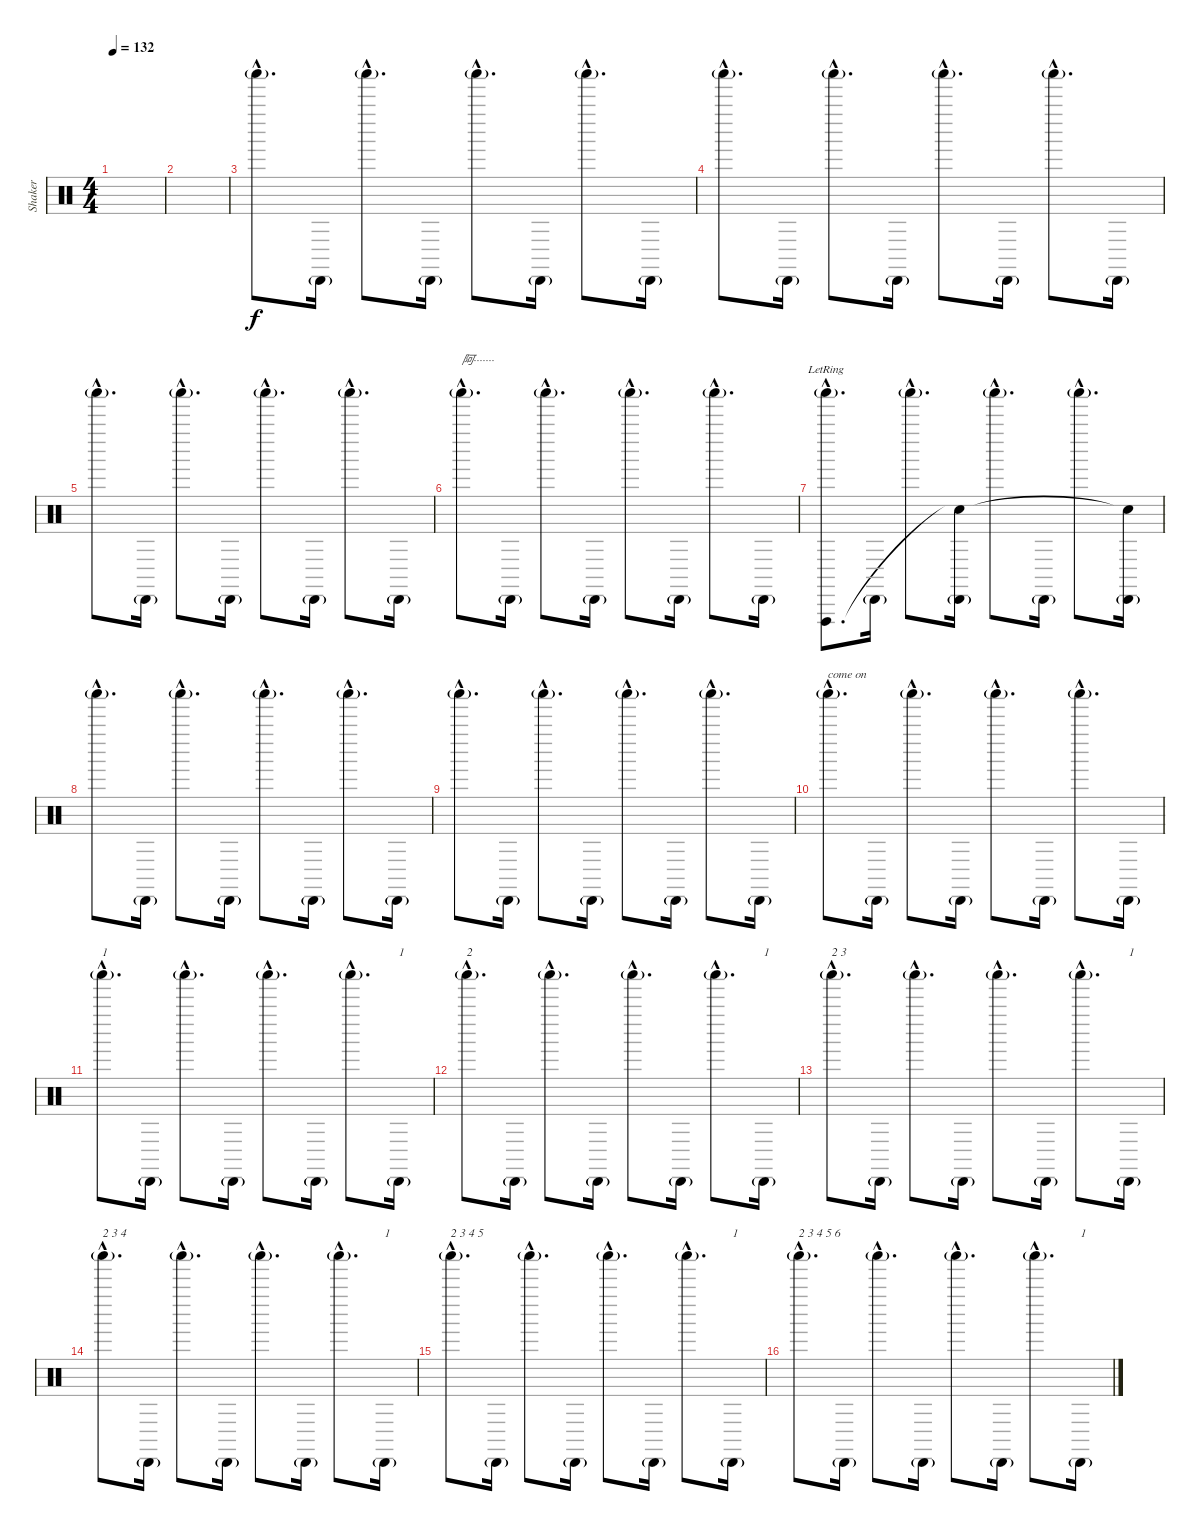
\track ("Shaker" "Shaker") {instrument percussion}
\staff {score}
\articulation defaults
\ts (4 4)
\tempo 132
\clef neutral
\ks c
|
|
"Shaker (hit)"{g hac}.8{d} "Cabasa (hit)"{g}.16 "Shaker (hit)"{g hac}.8{d} "Cabasa (hit)"{g}.16 "Shaker (hit)"{g hac}.8{d} "Cabasa (hit)"{g}.16 "Shaker (hit)"{g hac}.8{d} "Cabasa (hit)"{g}.16 |
"Shaker (hit)"{g hac}.8{d} "Cabasa (hit)"{g}.16 "Shaker (hit)"{g hac}.8{d} "Cabasa (hit)"{g}.16 "Shaker (hit)"{g hac}.8{d} "Cabasa (hit)"{g}.16 "Shaker (hit)"{g hac}.8{d} "Cabasa (hit)"{g}.16 |
"Shaker (hit)"{g hac}.8{d} "Cabasa (hit)"{g}.16 "Shaker (hit)"{g hac}.8{d} "Cabasa (hit)"{g}.16 "Shaker (hit)"{g hac}.8{d} "Cabasa (hit)"{g}.16 "Shaker (hit)"{g hac}.8{d} "Cabasa (hit)"{g}.16 |
"Shaker (hit)"{g hac}.8{d txt "阿·······"} "Cabasa (hit)"{g}.16 "Shaker (hit)"{g hac}.8{d} "Cabasa (hit)"{g}.16 "Shaker (hit)"{g hac}.8{d} "Cabasa (hit)"{g}.16 "Shaker (hit)"{g hac}.8{d} "Cabasa (hit)"{g}.16 |
("Shaker (hit)"{g hac} "Vibraslap (hit)"{hac lr}).8{d} "Cabasa (hit)"{g}.16 "Shaker (hit)"{g hac}.8{d} ("Cabasa (hit)"{g} "Snare (hit)"{t}).16 "Shaker (hit)"{g hac}.8{d} "Cabasa (hit)"{g}.16 "Shaker (hit)"{g hac}.8{d} ("Cabasa (hit)"{g} "Snare (hit)"{t}).16 |
"Shaker (hit)"{g hac}.8{d} "Cabasa (hit)"{g}.16 "Shaker (hit)"{g hac}.8{d} "Cabasa (hit)"{g}.16 "Shaker (hit)"{g hac}.8{d} "Cabasa (hit)"{g}.16 "Shaker (hit)"{g hac}.8{d} "Cabasa (hit)"{g}.16 |
"Shaker (hit)"{g hac}.8{d} "Cabasa (hit)"{g}.16 "Shaker (hit)"{g hac}.8{d} "Cabasa (hit)"{g}.16 "Shaker (hit)"{g hac}.8{d} "Cabasa (hit)"{g}.16 "Shaker (hit)"{g hac}.8{d} "Cabasa (hit)"{g}.16 |
"Shaker (hit)"{g hac}.8{d txt "come on"} "Cabasa (hit)"{g}.16 "Shaker (hit)"{g hac}.8{d} "Cabasa (hit)"{g}.16 "Shaker (hit)"{g hac}.8{d} "Cabasa (hit)"{g}.16 "Shaker (hit)"{g hac}.8{d} "Cabasa (hit)"{g}.16 |
"Shaker (hit)"{g hac}.8{d txt "1"} "Cabasa (hit)"{g}.16 "Shaker (hit)"{g hac}.8{d} "Cabasa (hit)"{g}.16 "Shaker (hit)"{g hac}.8{d} "Cabasa (hit)"{g}.16 "Shaker (hit)"{g hac}.8{d} "Cabasa (hit)"{g}.16{txt "1"} |
"Shaker (hit)"{g hac}.8{d txt "2"} "Cabasa (hit)"{g}.16 "Shaker (hit)"{g hac}.8{d} "Cabasa (hit)"{g}.16 "Shaker (hit)"{g hac}.8{d} "Cabasa (hit)"{g}.16 "Shaker (hit)"{g hac}.8{d} "Cabasa (hit)"{g}.16{txt "1"} |
"Shaker (hit)"{g hac}.8{d txt "2 3"} "Cabasa (hit)"{g}.16 "Shaker (hit)"{g hac}.8{d} "Cabasa (hit)"{g}.16 "Shaker (hit)"{g hac}.8{d} "Cabasa (hit)"{g}.16 "Shaker (hit)"{g hac}.8{d} "Cabasa (hit)"{g}.16{txt "1"} |
"Shaker (hit)"{g hac}.8{d txt "2 3 4"} "Cabasa (hit)"{g}.16 "Shaker (hit)"{g hac}.8{d} "Cabasa (hit)"{g}.16 "Shaker (hit)"{g hac}.8{d} "Cabasa (hit)"{g}.16 "Shaker (hit)"{g hac}.8{d} "Cabasa (hit)"{g}.16{txt "1"} |
"Shaker (hit)"{g hac}.8{d txt "2 3 4 5 "} "Cabasa (hit)"{g}.16 "Shaker (hit)"{g hac}.8{d} "Cabasa (hit)"{g}.16 "Shaker (hit)"{g hac}.8{d} "Cabasa (hit)"{g}.16 "Shaker (hit)"{g hac}.8{d} "Cabasa (hit)"{g}.16{txt "1"} |
"Shaker (hit)"{g hac}.8{d txt "2 3 4 5 6"} "Cabasa (hit)"{g}.16 "Shaker (hit)"{g hac}.8{d} "Cabasa (hit)"{g}.16 "Shaker (hit)"{g hac}.8{d} "Cabasa (hit)"{g}.16 "Shaker (hit)"{g hac}.8{d} "Cabasa (hit)"{g}.16{txt "1"}
